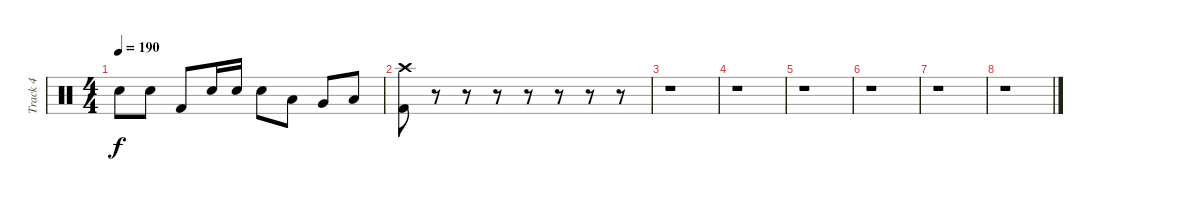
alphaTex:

\track ("Track 4" "Track 4") {instrument percussion}
\staff {score}
\articulation defaults
\ts (4 4)
\tempo 190
\clef neutral
\ks c "Electric Snare (hit)".8{dy f} "Electric Snare (hit)".8 "Kick (hit) 2".8 "Electric Snare (hit)".16 "Electric Snare (hit)".16 "Electric Snare (hit)".8 "Low Tom (hit)".8 "Very Low Tom (hit)".8 "Low Floor Tom (hit)".8
|
("Crash high (hit)" "Kick (hit) 2").8 r.8 r.8 r.8 r.8 r.8 r.8 r.8 |
r.1 |
r.1 |
r.1 |
r.1 |
r.1 |
r.1
